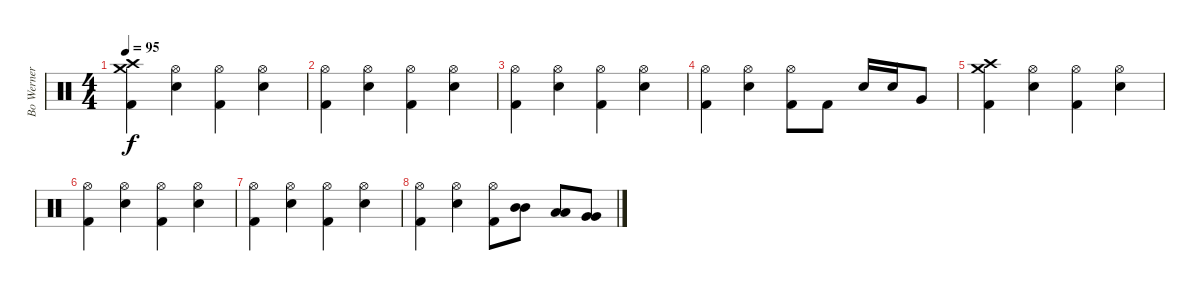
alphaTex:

\track ("Bo Werner" "Bo Werner") {instrument percussion}
\staff {score}
\articulation defaults
\ts (4 4)
\tempo 95
\clef neutral
\ks c
("Crash medium (hit)" "Crash high (hit)" "Kick (hit) 2").4{dy f} ("Hi-Hat (open)" "Snare (hit) 2").4 ("Hi-Hat (open)" "Kick (hit) 2").4 ("Hi-Hat (open)" "Snare (hit) 2").4 |
("Hi-Hat (open)" "Kick (hit) 2").4 ("Hi-Hat (open)" "Snare (hit) 2").4 ("Hi-Hat (open)" "Kick (hit) 2").4 ("Hi-Hat (open)" "Snare (hit) 2").4 |
("Hi-Hat (open)" "Kick (hit) 2").4 ("Hi-Hat (open)" "Snare (hit) 2").4 ("Hi-Hat (open)" "Kick (hit) 2").4 ("Hi-Hat (open)" "Snare (hit) 2").4 |
("Hi-Hat (open)" "Kick (hit) 2").4 ("Hi-Hat (open)" "Snare (hit) 2").4 ("Hi-Hat (open)" "Kick (hit) 2").8 "Kick (hit) 2".8 "Snare (hit) 2".16 "Snare (hit) 2".16 "Very Low Tom (hit)".8 |
("Crash high (hit)" "Crash medium (hit)" "Kick (hit) 2").4 ("Hi-Hat (open)" "Snare (hit) 2").4 ("Hi-Hat (open)" "Kick (hit) 2").4 ("Hi-Hat (open)" "Snare (hit) 2").4 |
("Hi-Hat (open)" "Kick (hit) 2").4 ("Hi-Hat (open)" "Snare (hit) 2").4 ("Hi-Hat (open)" "Kick (hit) 2").4 ("Hi-Hat (open)" "Snare (hit) 2").4 |
("Hi-Hat (open)" "Kick (hit) 2").4 ("Hi-Hat (open)" "Snare (hit) 2").4 ("Hi-Hat (open)" "Kick (hit) 2").4 ("Hi-Hat (open)" "Snare (hit) 2").4 |
("Hi-Hat (open)" "Kick (hit) 2").4 ("Hi-Hat (open)" "Snare (hit) 2").4 ("Hi-Hat (open)" "Kick (hit) 2").8 ("Mid Tom (hit)" "Mid Tom (hit)").8 ("Low Tom (hit)" "Low Tom (hit)").8 ("Very Low Tom (hit)" "Very Low Tom (hit)").8
